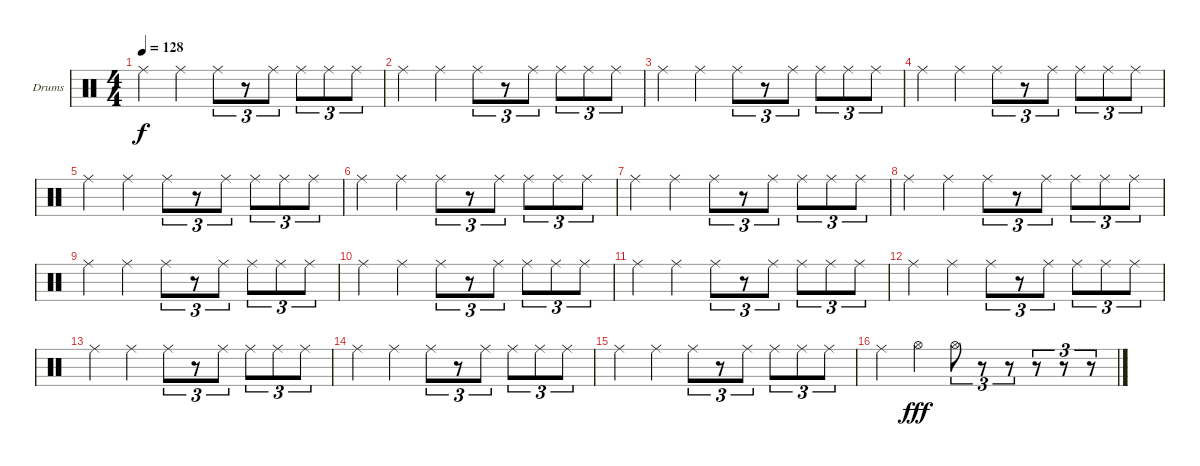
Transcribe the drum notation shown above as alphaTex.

\defaultSystemsLayout 4
\bracketExtendMode groupsimilarinstruments
\firstSystemTrackNameOrientation horizontal
\otherSystemsTrackNameOrientation horizontal
\track ("Drumkit" "Drums") {instrument percussion}
\staff {score}
\articulation defaults
\ts (4 4)
\tempo 128
\clef neutral
\scale
0.333333
\ks c "Ride (middle)".4{dy f} "Ride (middle)".4 "Ride (middle)".8{tu (3 2)}
r.8{tu (3 2)} "Ride (middle)".8{tu (3 2)} "Ride (middle)".8{tu (3 2)} "Ride (middle)".8{tu (3 2)} "Ride (middle)".8{tu (3 2)} |
\scale
0.333333 "Ride (middle)".4 "Ride (middle)".4 "Ride (middle)".8{tu (3 2)} r.8{tu (3 2)} "Ride (middle)".8{tu (3 2)} "Ride (middle)".8{tu (3 2)} "Ride (middle)".8{tu (3 2)} "Ride (middle)".8{tu (3 2)} |
\scale
0.333333 "Ride (middle)".4 "Ride (middle)".4 "Ride (middle)".8{tu (3 2)} r.8{tu (3 2)} "Ride (middle)".8{tu (3 2)} "Ride (middle)".8{tu (3 2)} "Ride (middle)".8{tu (3 2)} "Ride (middle)".8{tu (3 2)} |
\scale
0.333333 "Ride (middle)".4 "Ride (middle)".4 "Ride (middle)".8{tu (3 2)} r.8{tu (3 2)} "Ride (middle)".8{tu (3 2)} "Ride (middle)".8{tu (3 2)} "Ride (middle)".8{tu (3 2)} "Ride (middle)".8{tu (3 2)} |
\scale
0.333333 "Ride (middle)".4 "Ride (middle)".4 "Ride (middle)".8{tu (3 2)} r.8{tu (3 2)} "Ride (middle)".8{tu (3 2)} "Ride (middle)".8{tu (3 2)} "Ride (middle)".8{tu (3 2)} "Ride (middle)".8{tu (3 2)} |
\scale
0.333333 "Ride (middle)".4 "Ride (middle)".4 "Ride (middle)".8{tu (3 2)} r.8{tu (3 2)} "Ride (middle)".8{tu (3 2)} "Ride (middle)".8{tu (3 2)} "Ride (middle)".8{tu (3 2)} "Ride (middle)".8{tu (3 2)} |
\scale
0.333333 "Ride (middle)".4 "Ride (middle)".4 "Ride (middle)".8{tu (3 2)} r.8{tu (3 2)} "Ride (middle)".8{tu (3 2)} "Ride (middle)".8{tu (3 2)} "Ride (middle)".8{tu (3 2)} "Ride (middle)".8{tu (3 2)} |
\scale
0.333333 "Ride (middle)".4 "Ride (middle)".4 "Ride (middle)".8{tu (3 2)} r.8{tu (3 2)} "Ride (middle)".8{tu (3 2)} "Ride (middle)".8{tu (3 2)} "Ride (middle)".8{tu (3 2)} "Ride (middle)".8{tu (3 2)} |
\scale
0.333333 "Ride (middle)".4 "Ride (middle)".4 "Ride (middle)".8{tu (3 2)} r.8{tu (3 2)} "Ride (middle)".8{tu (3 2)} "Ride (middle)".8{tu (3 2)} "Ride (middle)".8{tu (3 2)} "Ride (middle)".8{tu (3 2)} |
\scale
0.333333 "Ride (middle)".4 "Ride (middle)".4 "Ride (middle)".8{tu (3 2)} r.8{tu (3 2)} "Ride (middle)".8{tu (3 2)} "Ride (middle)".8{tu (3 2)} "Ride (middle)".8{tu (3 2)} "Ride (middle)".8{tu (3 2)} |
\scale
0.333333 "Ride (middle)".4 "Ride (middle)".4 "Ride (middle)".8{tu (3 2)} r.8{tu (3 2)} "Ride (middle)".8{tu (3 2)} "Ride (middle)".8{tu (3 2)} "Ride (middle)".8{tu (3 2)} "Ride (middle)".8{tu (3 2)} |
\scale
0.333333 "Ride (middle)".4 "Ride (middle)".4 "Ride (middle)".8{tu (3 2)} r.8{tu (3 2)} "Ride (middle)".8{tu (3 2)} "Ride (middle)".8{tu (3 2)} "Ride (middle)".8{tu (3 2)} "Ride (middle)".8{tu (3 2)} |
\scale
0.333333 "Ride (middle)".4 "Ride (middle)".4 "Ride (middle)".8{tu (3 2)} r.8{tu (3 2)} "Ride (middle)".8{tu (3 2)} "Ride (middle)".8{tu (3 2)} "Ride (middle)".8{tu (3 2)} "Ride (middle)".8{tu (3 2)} |
\scale
0.333333 "Ride (middle)".4 "Ride (middle)".4 "Ride (middle)".8{tu (3 2)} r.8{tu (3 2)} "Ride (middle)".8{tu (3 2)} "Ride (middle)".8{tu (3 2)} "Ride (middle)".8{tu (3 2)} "Ride (middle)".8{tu (3 2)} |
\scale
0.333333 "Ride (middle)".4 "Ride (middle)".4 "Ride (middle)".8{tu (3 2)} r.8{tu (3 2)} "Ride (middle)".8{tu (3 2)} "Ride (middle)".8{tu (3 2)} "Ride (middle)".8{tu (3 2)} "Ride (middle)".8{tu (3 2)} |
\scale
0.333333 "Ride (middle)".4 "Hi-Hat (open)".4{dy fff} "Hi-Hat (open)".8{tu (3 2)} r.8{tu (3 2)} r.8{tu (3 2)} r.8{tu (3 2)} r.8{tu (3 2)} r.8{tu (3 2)}
